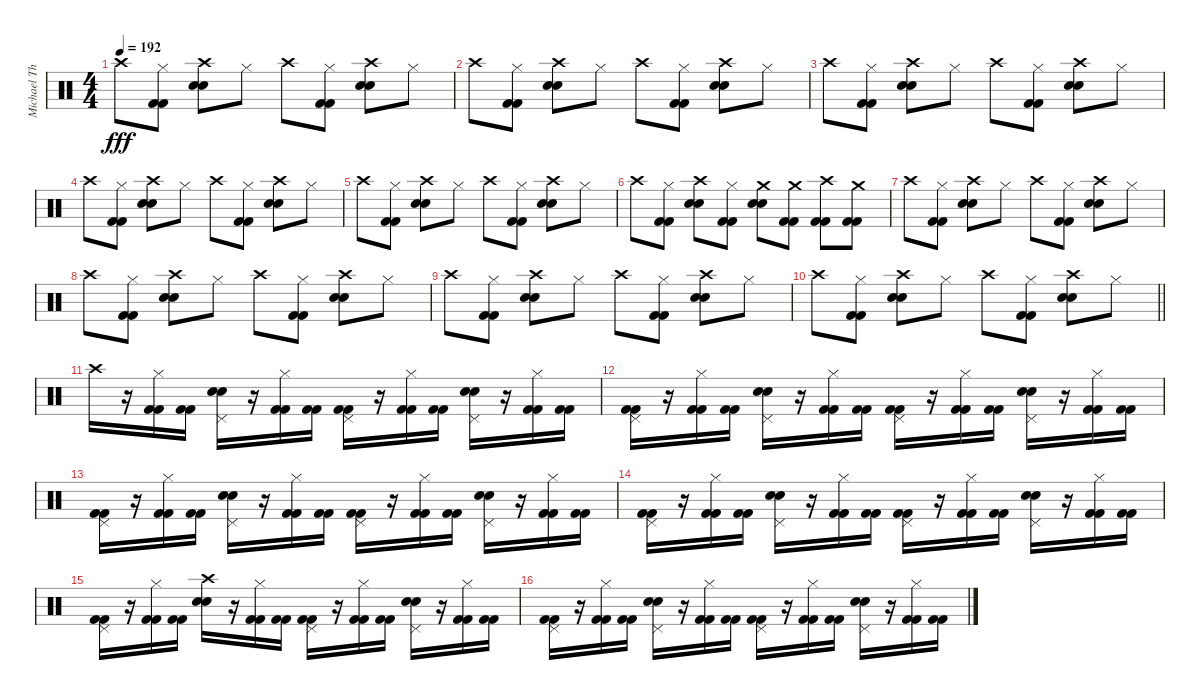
\track ("Michael Thomas" "Michael Th") {instrument percussion}
\staff {score}
\articulation defaults
\ts (4 4)
\tempo 192
\clef neutral
\ks c "Crash high (hit)".8{dy fff}
("Hi-Hat (closed)" "Kick (hit) 2" "Kick (hit) 2").8 ("Crash high (hit)" "Snare (hit) 2" "Electric Snare (hit)").8 "Hi-Hat (closed)".8 "Crash high (hit)".8 ("Hi-Hat (closed)" "Kick (hit) 2" "Kick (hit) 2").8 ("Crash high (hit)" "Snare (hit) 2" "Electric Snare (hit)").8 "Hi-Hat (closed)".8 |
"Crash high (hit)".8 ("Hi-Hat (closed)" "Kick (hit) 2" "Kick (hit) 2").8 ("Crash high (hit)" "Snare (hit) 2" "Electric Snare (hit)").8 "Hi-Hat (closed)".8 "Crash high (hit)".8 ("Hi-Hat (closed)" "Kick (hit) 2" "Kick (hit) 2").8 ("Crash high (hit)" "Snare (hit) 2" "Electric Snare (hit)").8 "Hi-Hat (closed)".8 |
"Crash high (hit)".8 ("Hi-Hat (closed)" "Kick (hit) 2" "Kick (hit) 2").8 ("Crash high (hit)" "Snare (hit) 2" "Electric Snare (hit)").8 "Hi-Hat (closed)".8 "Crash high (hit)".8 ("Hi-Hat (closed)" "Kick (hit) 2" "Kick (hit) 2").8 ("Crash high (hit)" "Snare (hit) 2" "Electric Snare (hit)").8 "Hi-Hat (closed)".8 |
"Crash high (hit)".8 ("Hi-Hat (closed)" "Kick (hit) 2" "Kick (hit) 2").8 ("Crash high (hit)" "Snare (hit) 2" "Electric Snare (hit)").8 "Hi-Hat (closed)".8 "Crash high (hit)".8 ("Hi-Hat (closed)" "Kick (hit) 2" "Kick (hit) 2").8 ("Crash high (hit)" "Snare (hit) 2" "Electric Snare (hit)").8 "Hi-Hat (closed)".8 |
"Crash high (hit)".8 ("Hi-Hat (closed)" "Kick (hit) 2" "Kick (hit) 2").8 ("Crash high (hit)" "Snare (hit) 2" "Electric Snare (hit)").8 "Hi-Hat (closed)".8 "Crash high (hit)".8 ("Hi-Hat (closed)" "Kick (hit) 2" "Kick (hit) 2").8 ("Crash high (hit)" "Snare (hit) 2" "Electric Snare (hit)").8 "Hi-Hat (closed)".8 |
"Crash high (hit)".8 ("Hi-Hat (closed)" "Kick (hit) 2" "Kick (hit) 2").8 ("Crash high (hit)" "Snare (hit) 2" "Electric Snare (hit)").8 ("Hi-Hat (closed)" "Kick (hit) 2" "Kick (hit) 2").8 ("Crash medium (hit)" "Snare (hit) 2" "Electric Snare (hit)").8 ("Crash medium (hit)" "Kick (hit) 2" "Kick (hit) 2").8 ("Crash high (hit)" "Kick (hit) 2" "Kick (hit) 2").8 ("Crash medium (hit)" "Kick (hit) 2" "Kick (hit) 2").8 |
"Crash high (hit)".8 ("Hi-Hat (closed)" "Kick (hit) 2" "Kick (hit) 2").8 ("Crash high (hit)" "Snare (hit) 2" "Electric Snare (hit)").8 "Hi-Hat (closed)".8 "Crash high (hit)".8 ("Hi-Hat (closed)" "Kick (hit) 2" "Kick (hit) 2").8 ("Crash high (hit)" "Snare (hit) 2" "Electric Snare (hit)").8 "Hi-Hat (closed)".8 |
"Crash high (hit)".8 ("Hi-Hat (closed)" "Kick (hit) 2" "Kick (hit) 2").8 ("Crash high (hit)" "Snare (hit) 2" "Electric Snare (hit)").8 "Hi-Hat (closed)".8 "Crash high (hit)".8 ("Hi-Hat (closed)" "Kick (hit) 2" "Kick (hit) 2").8 ("Crash high (hit)" "Snare (hit) 2" "Electric Snare (hit)").8 "Hi-Hat (closed)".8 |
"Crash high (hit)".8 ("Hi-Hat (closed)" "Kick (hit) 2" "Kick (hit) 2").8 ("Crash high (hit)" "Snare (hit) 2" "Electric Snare (hit)").8 "Hi-Hat (closed)".8 "Crash high (hit)".8 ("Hi-Hat (closed)" "Kick (hit) 2" "Kick (hit) 2").8 ("Crash high (hit)" "Snare (hit) 2" "Electric Snare (hit)").8 "Hi-Hat (closed)".8 |
\barLineRight lightlight "Crash high (hit)".8
("Hi-Hat (closed)" "Kick (hit) 2" "Kick (hit) 2").8 ("Crash high (hit)" "Snare (hit) 2" "Electric Snare (hit)").8 "Hi-Hat (closed)".8 "Crash high (hit)".8 ("Hi-Hat (closed)" "Kick (hit) 2" "Kick (hit) 2").8 ("Crash high (hit)" "Snare (hit) 2" "Electric Snare (hit)").8 "Hi-Hat (closed)".8 |
"Crash high (hit)".16 r.16 ("Hi-Hat (closed)" "Kick (hit) 2" "Kick (hit) 2").16 ("Kick (hit) 2" "Kick (hit) 2").16 ("Pedal Hi-Hat (hit)" "Snare (hit) 2" "Electric Snare (hit)").16 r.16 ("Hi-Hat (closed)" "Kick (hit) 2" "Kick (hit) 2").16 ("Kick (hit) 2" "Kick (hit) 2").16 ("Pedal Hi-Hat (hit)" "Kick (hit) 2" "Kick (hit) 2").16 r.16 ("Hi-Hat (closed)" "Kick (hit) 2" "Kick (hit) 2").16 ("Kick (hit) 2" "Kick (hit) 2").16 ("Pedal Hi-Hat (hit)" "Snare (hit) 2" "Electric Snare (hit)").16 r.16 ("Hi-Hat (closed)" "Kick (hit) 2" "Kick (hit) 2").16 ("Kick (hit) 2" "Kick (hit) 2").16 |
("Pedal Hi-Hat (hit)" "Kick (hit) 2" "Kick (hit) 2").16 r.16 ("Hi-Hat (closed)" "Kick (hit) 2" "Kick (hit) 2").16 ("Kick (hit) 2" "Kick (hit) 2").16 ("Pedal Hi-Hat (hit)" "Snare (hit) 2" "Electric Snare (hit)").16 r.16 ("Hi-Hat (closed)" "Kick (hit) 2" "Kick (hit) 2").16 ("Kick (hit) 2" "Kick (hit) 2").16 ("Pedal Hi-Hat (hit)" "Kick (hit) 2" "Kick (hit) 2").16 r.16 ("Hi-Hat (closed)" "Kick (hit) 2" "Kick (hit) 2").16 ("Kick (hit) 2" "Kick (hit) 2").16 ("Pedal Hi-Hat (hit)" "Snare (hit) 2" "Electric Snare (hit)").16 r.16 ("Hi-Hat (closed)" "Kick (hit) 2" "Kick (hit) 2").16 ("Kick (hit) 2" "Kick (hit) 2").16 |
("Pedal Hi-Hat (hit)" "Kick (hit) 2" "Kick (hit) 2").16 r.16 ("Hi-Hat (closed)" "Kick (hit) 2" "Kick (hit) 2").16 ("Kick (hit) 2" "Kick (hit) 2").16 ("Pedal Hi-Hat (hit)" "Snare (hit) 2" "Electric Snare (hit)").16 r.16 ("Hi-Hat (closed)" "Kick (hit) 2" "Kick (hit) 2").16 ("Kick (hit) 2" "Kick (hit) 2").16 ("Pedal Hi-Hat (hit)" "Kick (hit) 2" "Kick (hit) 2").16 r.16 ("Hi-Hat (closed)" "Kick (hit) 2" "Kick (hit) 2").16 ("Kick (hit) 2" "Kick (hit) 2").16 ("Pedal Hi-Hat (hit)" "Snare (hit) 2" "Electric Snare (hit)").16 r.16 ("Hi-Hat (closed)" "Kick (hit) 2" "Kick (hit) 2").16 ("Kick (hit) 2" "Kick (hit) 2").16 |
("Pedal Hi-Hat (hit)" "Kick (hit) 2" "Kick (hit) 2").16 r.16 ("Hi-Hat (closed)" "Kick (hit) 2" "Kick (hit) 2").16 ("Kick (hit) 2" "Kick (hit) 2").16 ("Pedal Hi-Hat (hit)" "Snare (hit) 2" "Electric Snare (hit)").16 r.16 ("Hi-Hat (closed)" "Kick (hit) 2" "Kick (hit) 2").16 ("Kick (hit) 2" "Kick (hit) 2").16 ("Pedal Hi-Hat (hit)" "Kick (hit) 2" "Kick (hit) 2").16 r.16 ("Hi-Hat (closed)" "Kick (hit) 2" "Kick (hit) 2").16 ("Kick (hit) 2" "Kick (hit) 2").16 ("Pedal Hi-Hat (hit)" "Snare (hit) 2" "Electric Snare (hit)").16 r.16 ("Hi-Hat (closed)" "Kick (hit) 2" "Kick (hit) 2").16 ("Kick (hit) 2" "Kick (hit) 2").16 |
("Pedal Hi-Hat (hit)" "Kick (hit) 2" "Kick (hit) 2").16 r.16 ("Hi-Hat (closed)" "Kick (hit) 2" "Kick (hit) 2").16 ("Kick (hit) 2" "Kick (hit) 2").16 ("Crash high (hit)" "Snare (hit) 2" "Electric Snare (hit)").16 r.16 ("Hi-Hat (closed)" "Kick (hit) 2" "Kick (hit) 2").16 ("Kick (hit) 2" "Kick (hit) 2").16 ("Pedal Hi-Hat (hit)" "Kick (hit) 2" "Kick (hit) 2").16 r.16 ("Hi-Hat (closed)" "Kick (hit) 2" "Kick (hit) 2").16 ("Kick (hit) 2" "Kick (hit) 2").16 ("Pedal Hi-Hat (hit)" "Snare (hit) 2" "Electric Snare (hit)").16 r.16 ("Hi-Hat (closed)" "Kick (hit) 2" "Kick (hit) 2").16 ("Kick (hit) 2" "Kick (hit) 2").16 |
("Pedal Hi-Hat (hit)" "Kick (hit) 2" "Kick (hit) 2").16 r.16 ("Hi-Hat (closed)" "Kick (hit) 2" "Kick (hit) 2").16 ("Kick (hit) 2" "Kick (hit) 2").16 ("Pedal Hi-Hat (hit)" "Snare (hit) 2" "Electric Snare (hit)").16 r.16 ("Hi-Hat (closed)" "Kick (hit) 2" "Kick (hit) 2").16 ("Kick (hit) 2" "Kick (hit) 2").16 ("Pedal Hi-Hat (hit)" "Kick (hit) 2" "Kick (hit) 2").16 r.16 ("Hi-Hat (closed)" "Kick (hit) 2" "Kick (hit) 2").16 ("Kick (hit) 2" "Kick (hit) 2").16 ("Pedal Hi-Hat (hit)" "Snare (hit) 2" "Electric Snare (hit)").16 r.16 ("Hi-Hat (closed)" "Kick (hit) 2" "Kick (hit) 2").16 ("Kick (hit) 2" "Kick (hit) 2").16
